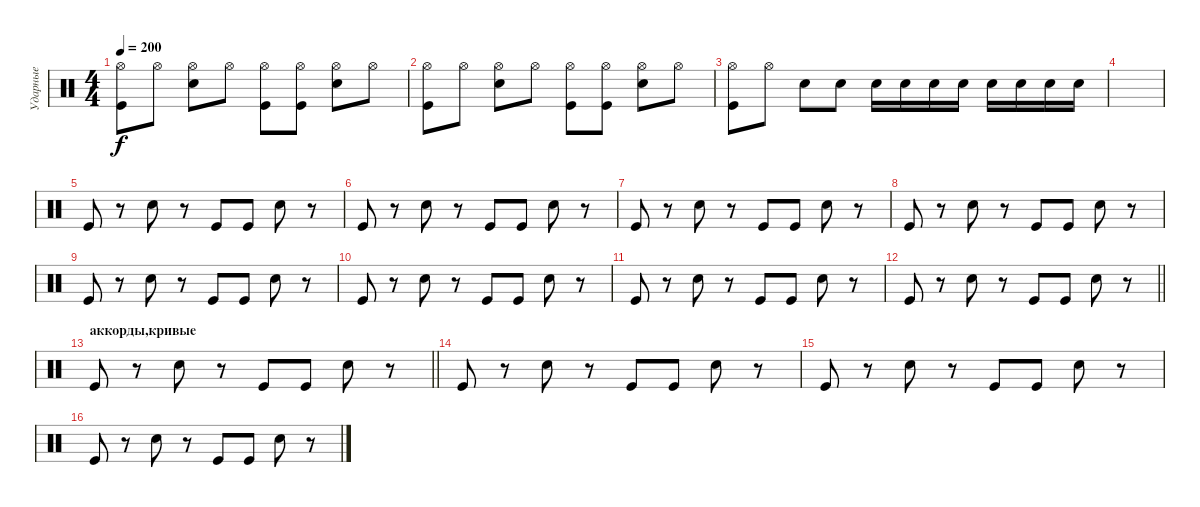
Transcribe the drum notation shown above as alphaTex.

\track ("Ударные" "Ударные") {instrument percussion}
\staff {score}
\articulation defaults
\ts (4 4)
\tempo 200
\clef neutral
\ks c
("Hi-Hat (open)" "Kick (hit)").8{dy f} "Hi-Hat (open)".8 ("Hi-Hat (open)" "Snare (hit) 2").8 "Hi-Hat (open)".8 ("Hi-Hat (open)" "Kick (hit)").8 ("Hi-Hat (open)" "Kick (hit)").8 ("Hi-Hat (open)" "Snare (hit) 2").8 "Hi-Hat (open)".8 |
("Hi-Hat (open)" "Kick (hit)").8 "Hi-Hat (open)".8 ("Hi-Hat (open)" "Snare (hit) 2").8 "Hi-Hat (open)".8 ("Hi-Hat (open)" "Kick (hit)").8 ("Hi-Hat (open)" "Kick (hit)").8 ("Hi-Hat (open)" "Snare (hit) 2").8 "Hi-Hat (open)".8 |
("Hi-Hat (open)" "Kick (hit)").8 "Hi-Hat (open)".8 "Snare (hit) 2".8 "Snare (hit) 2".8 "Snare (hit) 2".16 "Snare (hit) 2".16 "Snare (hit) 2".16 "Snare (hit) 2".16 "Snare (hit) 2".16 "Snare (hit) 2".16 "Snare (hit) 2".16 "Snare (hit) 2".16 |
|
"Kick (hit)".8 r.8 "Snare (hit) 2".8 r.8 "Kick (hit)".8 "Kick (hit)".8 "Snare (hit) 2".8 r.8 |
"Kick (hit)".8 r.8 "Snare (hit) 2".8 r.8 "Kick (hit)".8 "Kick (hit)".8 "Snare (hit) 2".8 r.8 |
"Kick (hit)".8 r.8 "Snare (hit) 2".8 r.8 "Kick (hit)".8 "Kick (hit)".8 "Snare (hit) 2".8 r.8 |
"Kick (hit)".8 r.8 "Snare (hit) 2".8 r.8 "Kick (hit)".8 "Kick (hit)".8 "Snare (hit) 2".8 r.8 |
"Kick (hit)".8 r.8 "Snare (hit) 2".8 r.8 "Kick (hit)".8 "Kick (hit)".8 "Snare (hit) 2".8 r.8 |
"Kick (hit)".8 r.8 "Snare (hit) 2".8 r.8 "Kick (hit)".8 "Kick (hit)".8 "Snare (hit) 2".8 r.8 |
"Kick (hit)".8 r.8 "Snare (hit) 2".8 r.8 "Kick (hit)".8 "Kick (hit)".8 "Snare (hit) 2".8 r.8 |
\barLineRight lightlight "Kick (hit)".8
r.8 "Snare (hit) 2".8 r.8 "Kick (hit)".8 "Kick (hit)".8 "Snare (hit) 2".8 r.8 |
\section ("" "аккорды,кривые")
\barLineRight lightlight "Kick (hit)".8
r.8 "Snare (hit) 2".8 r.8 "Kick (hit)".8 "Kick (hit)".8 "Snare (hit) 2".8 r.8 |
"Kick (hit)".8 r.8 "Snare (hit) 2".8 r.8 "Kick (hit)".8 "Kick (hit)".8 "Snare (hit) 2".8 r.8 |
"Kick (hit)".8 r.8 "Snare (hit) 2".8 r.8 "Kick (hit)".8 "Kick (hit)".8 "Snare (hit) 2".8 r.8 |
"Kick (hit)".8 r.8 "Snare (hit) 2".8 r.8 "Kick (hit)".8 "Kick (hit)".8 "Snare (hit) 2".8 r.8
